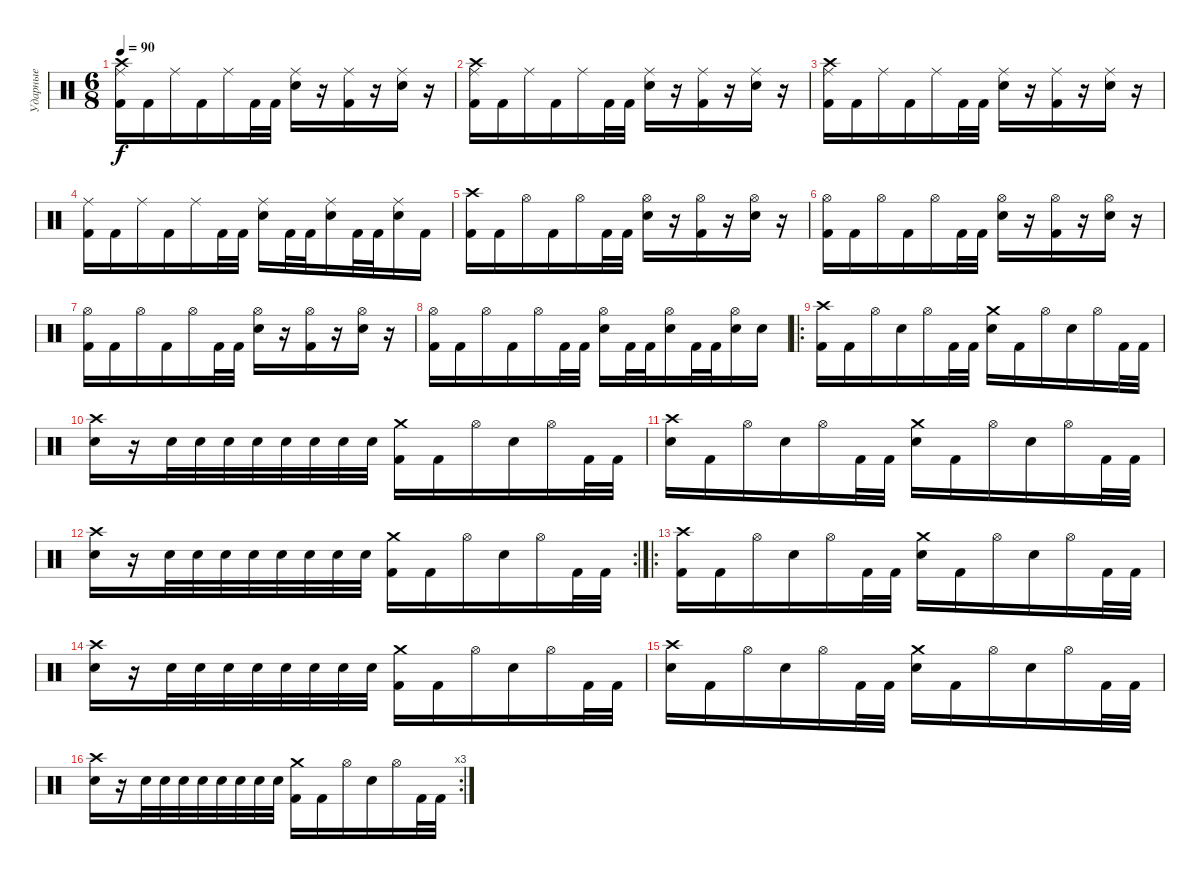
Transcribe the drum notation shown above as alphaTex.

\track ("Ударные" "Ударные") {instrument percussion}
\staff {score}
\articulation defaults
\ts (6 8)
\tempo 90
\clef neutral
\ks c
("Ride (middle)" "Crash high (hit)" "Kick (hit) 2").16{dy f} "Kick (hit) 2".16 "Ride (middle)".16 "Kick (hit) 2".16 "Ride (middle)".16 "Kick (hit) 2".32 "Kick (hit) 2".32 ("Ride (middle)" "Electric Snare (hit)").16 r.16 ("Ride (middle)" "Kick (hit) 2").16 r.16 ("Ride (middle)" "Electric Snare (hit)").16 r.16 |
("Ride (middle)" "Crash high (hit)" "Kick (hit) 2").16 "Kick (hit) 2".16 "Ride (middle)".16 "Kick (hit) 2".16 "Ride (middle)".16 "Kick (hit) 2".32 "Kick (hit) 2".32 ("Ride (middle)" "Electric Snare (hit)").16 r.16 ("Ride (middle)" "Kick (hit) 2").16 r.16 ("Ride (middle)" "Electric Snare (hit)").16 r.16 |
("Ride (middle)" "Crash high (hit)" "Kick (hit) 2").16 "Kick (hit) 2".16 "Ride (middle)".16 "Kick (hit) 2".16 "Ride (middle)".16 "Kick (hit) 2".32 "Kick (hit) 2".32 ("Ride (middle)" "Electric Snare (hit)").16 r.16 ("Ride (middle)" "Kick (hit) 2").16 r.16 ("Ride (middle)" "Electric Snare (hit)").16 r.16 |
("Ride (middle)" "Kick (hit) 2").16 "Kick (hit) 2".16 "Ride (middle)".16 "Kick (hit) 2".16 "Ride (middle)".16 "Kick (hit) 2".32 "Kick (hit) 2".32 ("Ride (middle)" "Electric Snare (hit)").16 "Kick (hit) 2".32 "Kick (hit) 2".32 ("Ride (middle)" "Electric Snare (hit)").16 "Kick (hit) 2".32 "Kick (hit) 2".32 ("Ride (middle)" "Electric Snare (hit)").16 "Kick (hit) 2".16 |
("Crash high (hit)" "Kick (hit) 2").16 "Kick (hit) 2".16 "Hi-Hat (open)".16 "Kick (hit) 2".16 "Hi-Hat (open)".16 "Kick (hit) 2".32 "Kick (hit) 2".32 ("Hi-Hat (open)" "Electric Snare (hit)").16 r.16 ("Hi-Hat (open)" "Kick (hit) 2").16 r.16 ("Hi-Hat (open)" "Electric Snare (hit)").16 r.16 |
("Hi-Hat (open)" "Kick (hit) 2").16 "Kick (hit) 2".16 "Hi-Hat (open)".16 "Kick (hit) 2".16 "Hi-Hat (open)".16 "Kick (hit) 2".32 "Kick (hit) 2".32 ("Hi-Hat (open)" "Electric Snare (hit)").16 r.16 ("Hi-Hat (open)" "Kick (hit) 2").16 r.16 ("Hi-Hat (open)" "Electric Snare (hit)").16 r.16 |
("Hi-Hat (open)" "Kick (hit) 2").16 "Kick (hit) 2".16 "Hi-Hat (open)".16 "Kick (hit) 2".16 "Hi-Hat (open)".16 "Kick (hit) 2".32 "Kick (hit) 2".32 ("Hi-Hat (open)" "Electric Snare (hit)").16 r.16 ("Hi-Hat (open)" "Kick (hit) 2").16 r.16 ("Hi-Hat (open)" "Electric Snare (hit)").16 r.16 |
("Hi-Hat (open)" "Kick (hit) 2").16 "Kick (hit) 2".16 "Hi-Hat (open)".16 "Kick (hit) 2".16 "Hi-Hat (open)".16 "Kick (hit) 2".32 "Kick (hit) 2".32 ("Hi-Hat (open)" "Electric Snare (hit)").16 "Kick (hit) 2".32 "Kick (hit) 2".32 ("Hi-Hat (open)" "Electric Snare (hit)").16 "Kick (hit) 2".32 "Kick (hit) 2".32 ("Hi-Hat (open)" "Electric Snare (hit)").16 "Electric Snare (hit)".16 |
\ro
("Crash high (hit)" "Kick (hit) 2").16 "Kick (hit) 2".16 "Hi-Hat (open)".16 "Electric Snare (hit)".16 "Hi-Hat (open)".16 "Kick (hit) 2".32 "Kick (hit) 2".32 ("Crash medium (hit)" "Electric Snare (hit)").16 "Kick (hit) 2".16 "Hi-Hat (open)".16 "Electric Snare (hit)".16 "Hi-Hat (open)".16 "Kick (hit) 2".32 "Kick (hit) 2".32 |
("Crash high (hit)" "Electric Snare (hit)").16 r.16 "Electric Snare (hit)".32 "Electric Snare (hit)".32 "Electric Snare (hit)".32 "Electric Snare (hit)".32 "Electric Snare (hit)".32 "Electric Snare (hit)".32 "Electric Snare (hit)".32 "Electric Snare (hit)".32 ("Crash medium (hit)" "Kick (hit) 2").16 "Kick (hit) 2".16 "Hi-Hat (open)".16 "Electric Snare (hit)".16 "Hi-Hat (open)".16 "Kick (hit) 2".32 "Kick (hit) 2".32 |
("Crash high (hit)" "Electric Snare (hit)").16 "Kick (hit) 2".16 "Hi-Hat (open)".16 "Electric Snare (hit)".16 "Hi-Hat (open)".16 "Kick (hit) 2".32 "Kick (hit) 2".32 ("Crash medium (hit)" "Electric Snare (hit)").16 "Kick (hit) 2".16 "Hi-Hat (open)".16 "Electric Snare (hit)".16 "Hi-Hat (open)".16 "Kick (hit) 2".32 "Kick (hit) 2".32 |
\rc 2
("Crash high (hit)" "Electric Snare (hit)").16 r.16 "Electric Snare (hit)".32 "Electric Snare (hit)".32 "Electric Snare (hit)".32 "Electric Snare (hit)".32 "Electric Snare (hit)".32 "Electric Snare (hit)".32 "Electric Snare (hit)".32 "Electric Snare (hit)".32 ("Crash medium (hit)" "Kick (hit) 2").16 "Kick (hit) 2".16 "Hi-Hat (open)".16 "Electric Snare (hit)".16 "Hi-Hat (open)".16 "Kick (hit) 2".32 "Kick (hit) 2".32 |
\ro
("Crash high (hit)" "Kick (hit) 2").16 "Kick (hit) 2".16 "Hi-Hat (open)".16 "Electric Snare (hit)".16 "Hi-Hat (open)".16 "Kick (hit) 2".32 "Kick (hit) 2".32 ("Crash medium (hit)" "Electric Snare (hit)").16 "Kick (hit) 2".16 "Hi-Hat (open)".16 "Electric Snare (hit)".16 "Hi-Hat (open)".16 "Kick (hit) 2".32 "Kick (hit) 2".32 |
("Crash high (hit)" "Electric Snare (hit)").16 r.16 "Electric Snare (hit)".32 "Electric Snare (hit)".32 "Electric Snare (hit)".32 "Electric Snare (hit)".32 "Electric Snare (hit)".32 "Electric Snare (hit)".32 "Electric Snare (hit)".32 "Electric Snare (hit)".32 ("Crash medium (hit)" "Kick (hit) 2").16 "Kick (hit) 2".16 "Hi-Hat (open)".16 "Electric Snare (hit)".16 "Hi-Hat (open)".16 "Kick (hit) 2".32 "Kick (hit) 2".32 |
("Crash high (hit)" "Electric Snare (hit)").16 "Kick (hit) 2".16 "Hi-Hat (open)".16 "Electric Snare (hit)".16 "Hi-Hat (open)".16 "Kick (hit) 2".32 "Kick (hit) 2".32 ("Crash medium (hit)" "Electric Snare (hit)").16 "Kick (hit) 2".16 "Hi-Hat (open)".16 "Electric Snare (hit)".16 "Hi-Hat (open)".16 "Kick (hit) 2".32 "Kick (hit) 2".32 |
\rc 3
("Crash high (hit)" "Electric Snare (hit)").16 r.16 "Electric Snare (hit)".32 "Electric Snare (hit)".32 "Electric Snare (hit)".32 "Electric Snare (hit)".32 "Electric Snare (hit)".32 "Electric Snare (hit)".32 "Electric Snare (hit)".32 "Electric Snare (hit)".32 ("Crash medium (hit)" "Kick (hit) 2").16 "Kick (hit) 2".16 "Hi-Hat (open)".16 "Electric Snare (hit)".16 "Hi-Hat (open)".16 "Kick (hit) 2".32 "Kick (hit) 2".32
